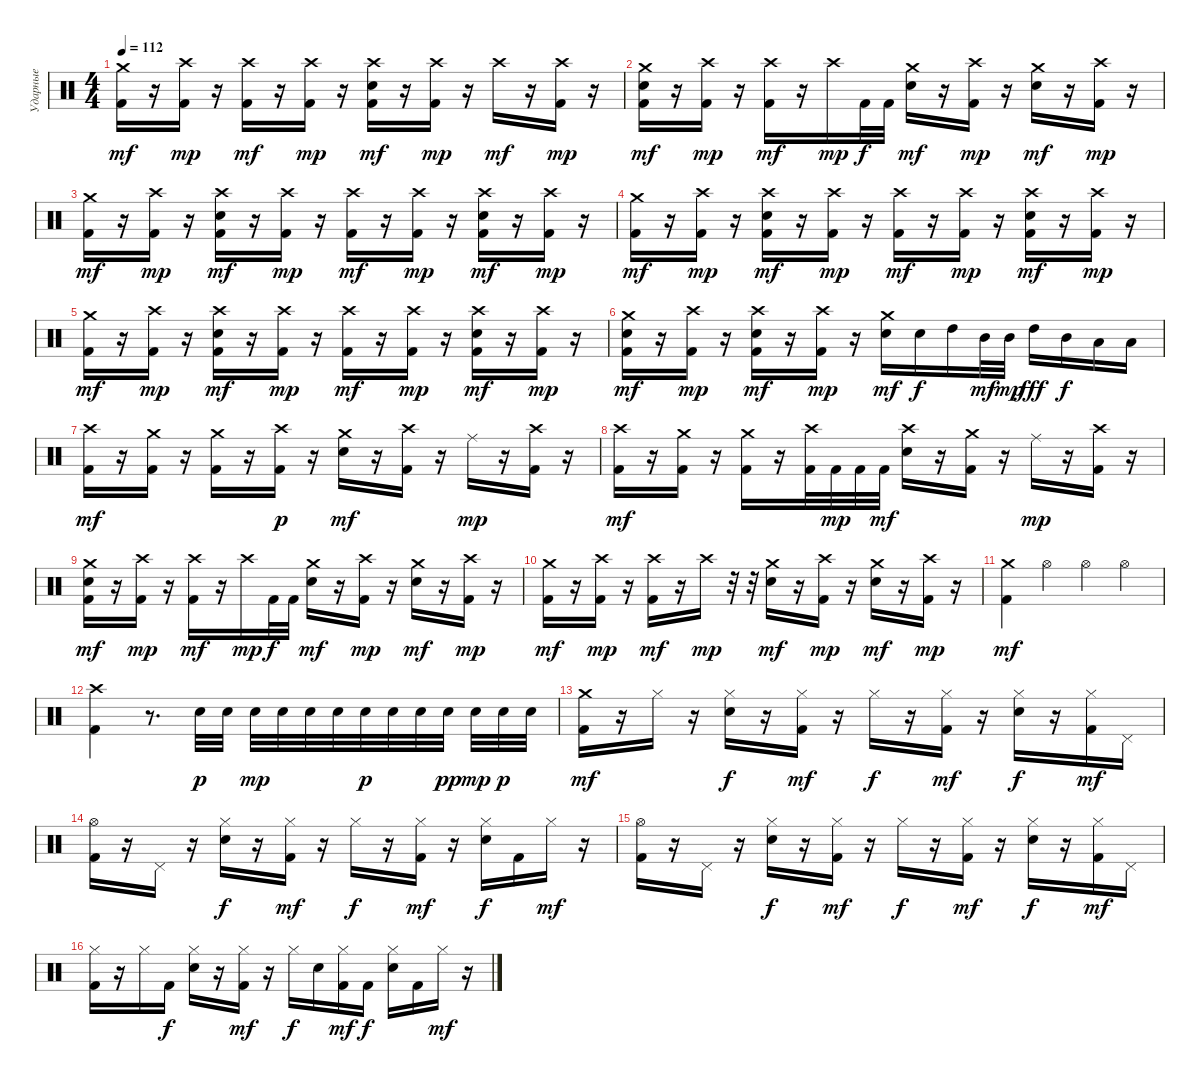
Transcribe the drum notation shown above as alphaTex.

\track ("Ударные" "Ударные") {instrument percussion}
\staff {score}
\articulation defaults
\ts (4 4)
\tempo 112
\clef neutral
\ks c
("Crash medium (hit)" "Kick (hit) 2").16{dy mf} r.16 ("Crash high (hit)" "Kick (hit) 2").16{dy mp} r.16 ("Crash high (hit)" "Kick (hit) 2").16{dy mf} r.16 ("Crash high (hit)" "Kick (hit) 2").16{dy mp} r.16 ("Crash high (hit)" "Electric Snare (hit)" "Kick (hit) 2").16{dy mf} r.16 ("Crash high (hit)" "Kick (hit) 2").16{dy mp} r.16 "Crash high (hit)".16{dy mf} r.16 ("Crash high (hit)" "Kick (hit) 2").16{dy mp} r.16 |
("Crash medium (hit)" "Electric Snare (hit)" "Kick (hit) 2").16{dy mf} r.16 ("Crash high (hit)" "Kick (hit) 2").16{dy mp} r.16 ("Crash high (hit)" "Kick (hit) 2").16{dy mf} r.16 "Crash high (hit)".16{dy mp} "Kick (hit) 2".32{dy f} "Kick (hit) 2".32 ("Crash medium (hit)" "Electric Snare (hit)").16{dy mf} r.16 ("Crash high (hit)" "Kick (hit) 2").16{dy mp} r.16 ("Crash medium (hit)" "Electric Snare (hit)").16{dy mf} r.16 ("Crash high (hit)" "Kick (hit) 2").16{dy mp} r.16 |
("Crash medium (hit)" "Kick (hit) 2").16{dy mf} r.16 ("Crash high (hit)" "Kick (hit) 2").16{dy mp} r.16 ("Crash high (hit)" "Electric Snare (hit)" "Kick (hit) 2").16{dy mf} r.16 ("Crash high (hit)" "Kick (hit) 2").16{dy mp} r.16 ("Crash high (hit)" "Kick (hit) 2").16{dy mf} r.16 ("Crash high (hit)" "Kick (hit) 2").16{dy mp} r.16 ("Crash high (hit)" "Electric Snare (hit)" "Kick (hit) 2").16{dy mf} r.16 ("Crash high (hit)" "Kick (hit) 2").16{dy mp} r.16 |
("Crash medium (hit)" "Kick (hit) 2").16{dy mf} r.16 ("Crash high (hit)" "Kick (hit) 2").16{dy mp} r.16 ("Crash high (hit)" "Electric Snare (hit)" "Kick (hit) 2").16{dy mf} r.16 ("Crash high (hit)" "Kick (hit) 2").16{dy mp} r.16 ("Crash high (hit)" "Kick (hit) 2").16{dy mf} r.16 ("Crash high (hit)" "Kick (hit) 2").16{dy mp} r.16 ("Crash high (hit)" "Electric Snare (hit)" "Kick (hit) 2").16{dy mf} r.16 ("Crash high (hit)" "Kick (hit) 2").16{dy mp} r.16 |
("Crash medium (hit)" "Kick (hit) 2").16{dy mf} r.16 ("Crash high (hit)" "Kick (hit) 2").16{dy mp} r.16 ("Crash high (hit)" "Electric Snare (hit)" "Kick (hit) 2").16{dy mf} r.16 ("Crash high (hit)" "Kick (hit) 2").16{dy mp} r.16 ("Crash high (hit)" "Kick (hit) 2").16{dy mf} r.16 ("Crash high (hit)" "Kick (hit) 2").16{dy mp} r.16 ("Crash high (hit)" "Electric Snare (hit)" "Kick (hit) 2").16{dy mf} r.16 ("Crash high (hit)" "Kick (hit) 2").16{dy mp} r.16 |
("Crash medium (hit)" "Electric Snare (hit)" "Kick (hit) 2").16{dy mf} r.16 ("Crash high (hit)" "Kick (hit) 2").16{dy mp} r.16 ("Crash high (hit)" "Electric Snare (hit)" "Kick (hit) 2").16{dy mf} r.16 ("Crash high (hit)" "Kick (hit) 2").16{dy mp} r.16 ("Crash medium (hit)" "Electric Snare (hit)").16{dy mf} "Electric Snare (hit)".16{dy f} "High Tom (hit)".16 "Mid Tom (hit)".32{dy mf} "Mid Tom (hit)".32{dy mp} "High Tom (hit)".16{dy fff} "Mid Tom (hit)".16{dy f} "Low Tom (hit)".16 "Low Tom (hit)".16 |
("Crash high (hit)" "Kick (hit) 2").16{dy mf} r.16 ("Crash medium (hit)" "Kick (hit) 2").16 r.16 ("Crash medium (hit)" "Kick (hit) 2").16 r.16 ("Crash high (hit)" "Kick (hit) 2").16{dy p} r.16 ("Crash medium (hit)" "Electric Snare (hit)").16{dy mf} r.16 ("Crash high (hit)" "Kick (hit) 2").16 r.16 "Ride (middle)".16{dy mp} r.16 ("Crash high (hit)" "Kick (hit) 2").16 r.16 |
("Crash high (hit)" "Kick (hit) 2").16{dy mf} r.16 ("Crash medium (hit)" "Kick (hit) 2").16 r.16 ("Crash medium (hit)" "Kick (hit) 2").16 r.16 ("Crash high (hit)" "Kick (hit) 2").32 "Kick (hit) 2".32{dy mp} "Kick (hit) 2".32 "Kick (hit) 2".32{dy mf} ("Crash high (hit)" "Electric Snare (hit)").16 r.16 ("Crash medium (hit)" "Kick (hit) 2").16 r.16 "Ride (middle)".16{dy mp} r.16 ("Crash high (hit)" "Kick (hit) 2").16 r.16 |
("Crash medium (hit)" "Electric Snare (hit)" "Kick (hit) 2").16{dy mf} r.16 ("Crash high (hit)" "Kick (hit) 2").16{dy mp} r.16 ("Crash high (hit)" "Kick (hit) 2").16{dy mf} r.16 "Crash high (hit)".16{dy mp} "Kick (hit) 2".32{dy f} "Kick (hit) 2".32 ("Crash medium (hit)" "Electric Snare (hit)").16{dy mf} r.16 ("Crash high (hit)" "Kick (hit) 2").16{dy mp} r.16 ("Crash medium (hit)" "Electric Snare (hit)").16{dy mf} r.16 ("Crash high (hit)" "Kick (hit) 2").16{dy mp} r.16 |
("Crash medium (hit)" "Kick (hit) 2").16{dy mf} r.16 ("Crash high (hit)" "Kick (hit) 2").16{dy mp} r.16 ("Crash high (hit)" "Kick (hit) 2").16{dy mf} r.16 "Crash high (hit)".16{dy mp} r.32 r.32 ("Crash medium (hit)" "Electric Snare (hit)").16{dy mf} r.16 ("Crash high (hit)" "Kick (hit) 2").16{dy mp} r.16 ("Crash medium (hit)" "Electric Snare (hit)").16{dy mf} r.16 ("Crash high (hit)" "Kick (hit) 2").16{dy mp} r.16 |
("Crash medium (hit)" "Kick (hit) 2").4{dy mf} "Hi-Hat (open)".4 "Hi-Hat (open)".4 "Hi-Hat (open)".4 |
("Crash high (hit)" "Kick (hit) 2").4 r.8{d} "Electric Snare (hit)".32{dy p} "Electric Snare (hit)".32 "Electric Snare (hit)".32{dy mp} "Electric Snare (hit)".32 "Electric Snare (hit)".32 "Electric Snare (hit)".32 "Electric Snare (hit)".32{dy p} "Electric Snare (hit)".32 "Electric Snare (hit)".32 "Electric Snare (hit)".32{dy pp} "Electric Snare (hit)".32{dy mp} "Electric Snare (hit)".32{dy p} "Electric Snare (hit)".32 |
("Crash medium (hit)" "Kick (hit) 2").16{dy mf} r.16 "Hi-Hat (closed)".16 r.16 ("Hi-Hat (closed)" "Electric Snare (hit)").16{dy f} r.16 ("Hi-Hat (closed)" "Kick (hit) 2").16{dy mf} r.16 "Hi-Hat (closed)".16{dy f} r.16 ("Hi-Hat (closed)" "Kick (hit) 2").16{dy mf} r.16 ("Hi-Hat (closed)" "Electric Snare (hit)").16{dy f} r.16 ("Hi-Hat (closed)" "Kick (hit) 2").16{dy mf} "Pedal Hi-Hat (hit)".16 |
("Hi-Hat (open)" "Kick (hit) 2").16 r.16 "Pedal Hi-Hat (hit)".16 r.16 ("Hi-Hat (closed)" "Electric Snare (hit)").16{dy f} r.16 ("Hi-Hat (closed)" "Kick (hit) 2").16{dy mf} r.16 "Hi-Hat (closed)".16{dy f} r.16 ("Hi-Hat (closed)" "Kick (hit) 2").16{dy mf} r.16 ("Hi-Hat (closed)" "Electric Snare (hit)").16{dy f} "Kick (hit) 2".16 "Hi-Hat (closed)".16{dy mf} r.16 |
("Hi-Hat (open)" "Kick (hit) 2").16 r.16 "Pedal Hi-Hat (hit)".16 r.16 ("Hi-Hat (closed)" "Electric Snare (hit)").16{dy f} r.16 ("Hi-Hat (closed)" "Kick (hit) 2").16{dy mf} r.16 "Hi-Hat (closed)".16{dy f} r.16 ("Hi-Hat (closed)" "Kick (hit) 2").16{dy mf} r.16 ("Hi-Hat (closed)" "Electric Snare (hit)").16{dy f} r.16 ("Hi-Hat (closed)" "Kick (hit) 2").16{dy mf} "Pedal Hi-Hat (hit)".16 |
("Hi-Hat (closed)" "Kick (hit) 2").16 r.16 "Hi-Hat (closed)".16 "Kick (hit) 2".16{dy f} ("Hi-Hat (closed)" "Electric Snare (hit)").16 r.16 ("Hi-Hat (closed)" "Kick (hit) 2").16{dy mf} r.16 "Hi-Hat (closed)".16{dy f} "Electric Snare (hit)".16 ("Hi-Hat (closed)" "Kick (hit) 2").16{dy mf} "Kick (hit) 2".16{dy f} ("Hi-Hat (closed)" "Electric Snare (hit)").16 "Kick (hit) 2".16 "Hi-Hat (closed)".16{dy mf} r.16
